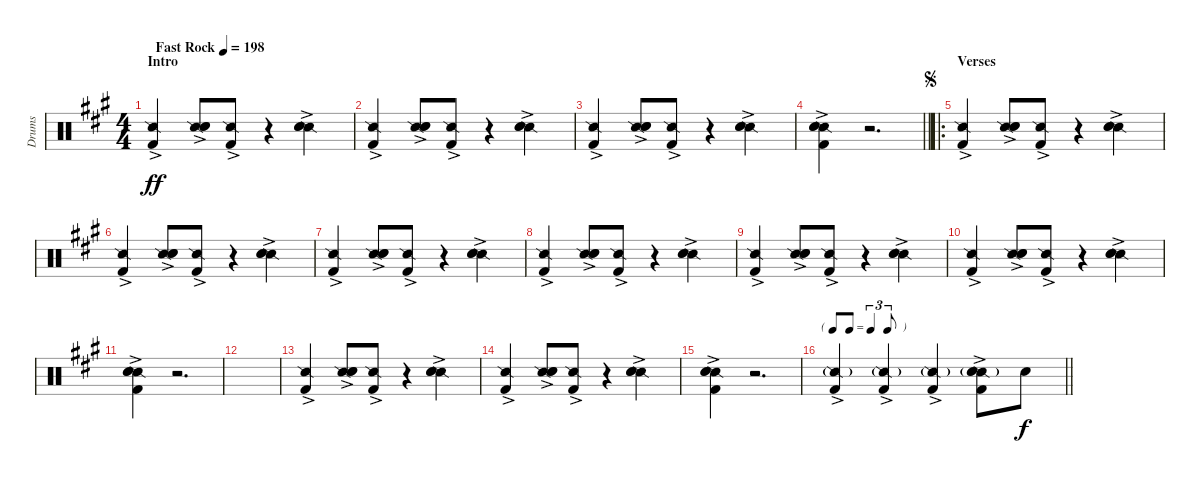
\track ("Drums" "Drums") {instrument percussion}
\staff {score}
\articulation defaults
\ts (4 4)
\section ("" "Intro")
\tempo (198 "Fast Rock")
\clef neutral
\ks a
("Snare (side stick) 2" "Kick (hit) 2"{ac}).4{dy ff} ("Snare (side stick) 2" "Electric Snare (hit)"{ac} "Snare (hit) 2").8 ("Snare (side stick) 2" "Kick (hit) 2"{ac}).8 r.4 ("Snare (side stick) 2" "Electric Snare (hit)"{ac} "Snare (hit) 2").4 |
("Snare (side stick) 2" "Kick (hit) 2"{ac}).4 ("Snare (side stick) 2" "Electric Snare (hit)"{ac} "Snare (hit) 2").8 ("Snare (side stick) 2" "Kick (hit) 2"{ac}).8 r.4 ("Snare (side stick) 2" "Electric Snare (hit)"{ac} "Snare (hit) 2").4 |
("Snare (side stick) 2" "Kick (hit) 2"{ac}).4 ("Snare (side stick) 2" "Electric Snare (hit)"{ac} "Snare (hit) 2").8 ("Snare (side stick) 2" "Kick (hit) 2"{ac}).8 r.4 ("Snare (side stick) 2" "Electric Snare (hit)"{ac} "Snare (hit) 2").4 |
\barLineRight lightlight
("Snare (side stick) 2" "Electric Snare (hit)"{ac} "Snare (hit) 2" "Kick (hit) 2"{ac}).4 r.2{d} |
\ro
\section ("" "Verses")
\jump segno
("Snare (side stick) 2" "Kick (hit) 2"{ac}).4 ("Snare (side stick) 2" "Electric Snare (hit)"{ac} "Snare (hit) 2").8 ("Snare (side stick) 2" "Kick (hit) 2"{ac}).8 r.4 ("Snare (side stick) 2" "Electric Snare (hit)"{ac} "Snare (hit) 2").4 |
("Snare (side stick) 2" "Kick (hit) 2"{ac}).4 ("Snare (side stick) 2" "Electric Snare (hit)"{ac} "Snare (hit) 2").8 ("Snare (side stick) 2" "Kick (hit) 2"{ac}).8 r.4 ("Snare (side stick) 2" "Electric Snare (hit)"{ac} "Snare (hit) 2").4 |
("Snare (side stick) 2" "Kick (hit) 2"{ac}).4 ("Snare (side stick) 2" "Electric Snare (hit)"{ac} "Snare (hit) 2").8 ("Snare (side stick) 2" "Kick (hit) 2"{ac}).8 r.4 ("Snare (side stick) 2" "Electric Snare (hit)"{ac} "Snare (hit) 2").4 |
("Snare (side stick) 2" "Kick (hit) 2"{ac}).4 ("Snare (side stick) 2" "Electric Snare (hit)"{ac} "Snare (hit) 2").8 ("Snare (side stick) 2" "Kick (hit) 2"{ac}).8 r.4 ("Snare (side stick) 2" "Electric Snare (hit)"{ac} "Snare (hit) 2").4 |
("Snare (side stick) 2" "Kick (hit) 2"{ac}).4 ("Snare (side stick) 2" "Electric Snare (hit)"{ac} "Snare (hit) 2").8 ("Snare (side stick) 2" "Kick (hit) 2"{ac}).8 r.4 ("Snare (side stick) 2" "Electric Snare (hit)"{ac} "Snare (hit) 2").4 |
("Snare (side stick) 2" "Kick (hit) 2"{ac}).4 ("Snare (side stick) 2" "Electric Snare (hit)"{ac} "Snare (hit) 2").8 ("Snare (side stick) 2" "Kick (hit) 2"{ac}).8 r.4 ("Snare (side stick) 2" "Electric Snare (hit)"{ac} "Snare (hit) 2").4 |
("Snare (side stick) 2" "Electric Snare (hit)"{ac} "Snare (hit) 2" "Kick (hit) 2"{ac}).4 r.2{d} |
|
("Snare (side stick) 2" "Kick (hit) 2"{ac}).4 ("Snare (side stick) 2" "Electric Snare (hit)"{ac} "Snare (hit) 2").8 ("Snare (side stick) 2" "Kick (hit) 2"{ac}).8 r.4 ("Snare (side stick) 2" "Electric Snare (hit)"{ac} "Snare (hit) 2").4 |
("Snare (side stick) 2" "Kick (hit) 2"{ac}).4 ("Snare (side stick) 2" "Electric Snare (hit)"{ac} "Snare (hit) 2").8 ("Snare (side stick) 2" "Kick (hit) 2"{ac}).8 r.4 ("Snare (side stick) 2" "Electric Snare (hit)"{ac} "Snare (hit) 2").4 |
("Snare (side stick) 2" "Electric Snare (hit)"{ac} "Snare (hit) 2" "Kick (hit) 2"{ac}).4 r.2{d} |
\tf triplet8th
\barLineRight lightlight
("Snare (side stick) 2"{g} "Kick (hit) 2"{ac}).4 ("Snare (side stick) 2"{g} "Kick (hit) 2"{ac}).4 ("Snare (side stick) 2"{g} "Kick (hit) 2"{ac}).4 ("Snare (side stick) 2"{g} "Electric Snare (hit)"{ac} "Snare (hit) 2" "Kick (hit) 2"{ac}).8 "Snare (hit) 2".8{dy f}
